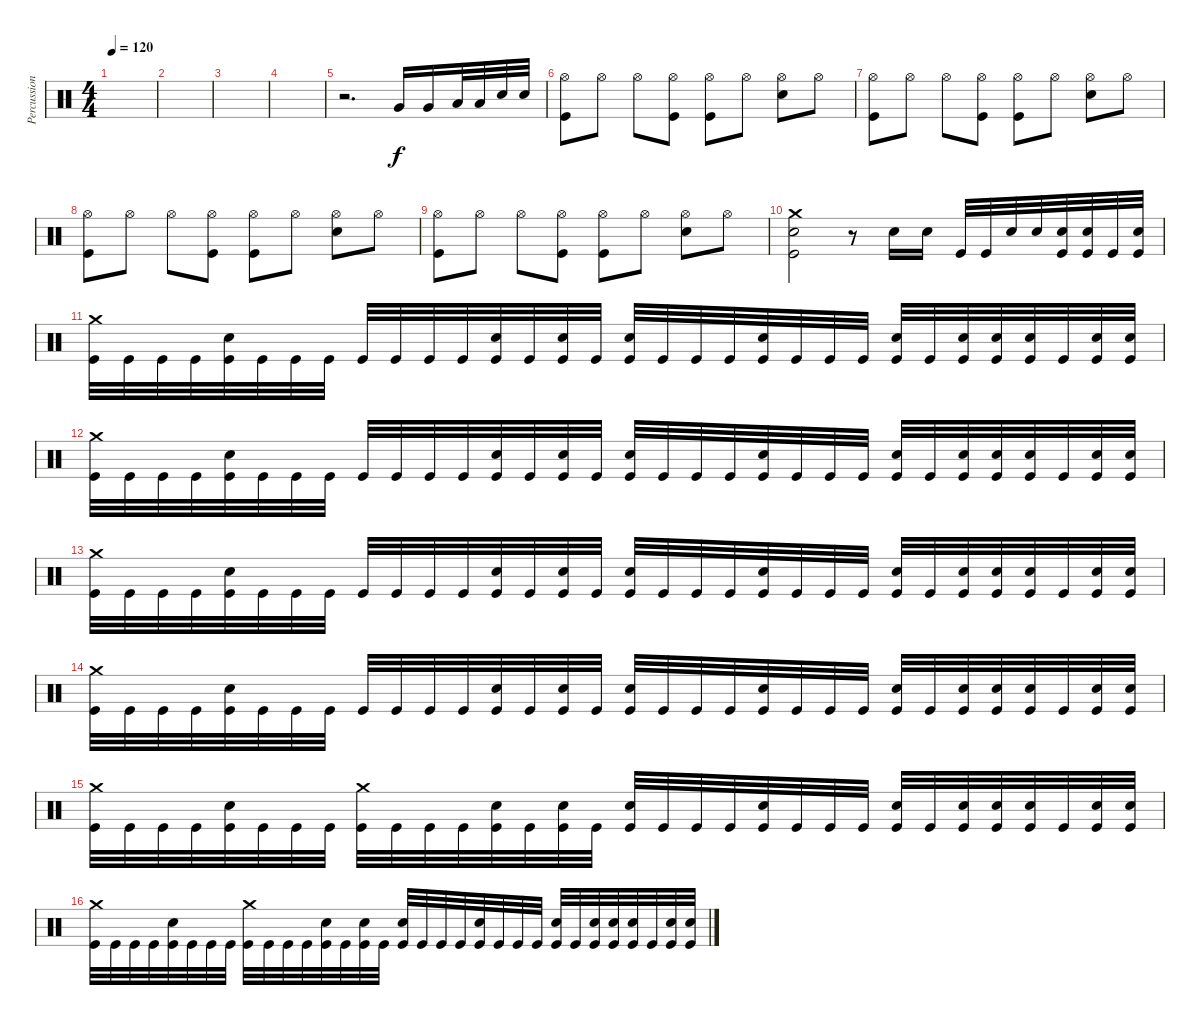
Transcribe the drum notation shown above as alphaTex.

\track ("Percussion" "Percussion") {instrument percussion}
\staff {score}
\articulation defaults
\ts (4 4)
\tempo 120
\clef neutral
\ks c
|
|
|
|
r.2{d} "Very Low Tom (hit)".16 "Very Low Tom (hit)".16 "Low Floor Tom (hit)".32 "Low Floor Tom (hit)".32 "Snare (hit) 2".32 "Snare (hit) 2".32 |
("Hi-Hat (open)" "Kick (hit)").8 "Hi-Hat (open)".8 "Hi-Hat (open)".8 ("Hi-Hat (open)" "Kick (hit)").8 ("Hi-Hat (open)" "Kick (hit)").8 "Hi-Hat (open)".8 ("Hi-Hat (open)" "Electric Snare (hit)").8 "Hi-Hat (open)".8 |
("Hi-Hat (open)" "Kick (hit)").8 "Hi-Hat (open)".8 "Hi-Hat (open)".8 ("Hi-Hat (open)" "Kick (hit)").8 ("Hi-Hat (open)" "Kick (hit)").8 "Hi-Hat (open)".8 ("Hi-Hat (open)" "Electric Snare (hit)").8 "Hi-Hat (open)".8 |
("Hi-Hat (open)" "Kick (hit)").8 "Hi-Hat (open)".8 "Hi-Hat (open)".8 ("Hi-Hat (open)" "Kick (hit)").8 ("Hi-Hat (open)" "Kick (hit)").8 "Hi-Hat (open)".8 ("Hi-Hat (open)" "Electric Snare (hit)").8 "Hi-Hat (open)".8 |
("Hi-Hat (open)" "Kick (hit)").8 "Hi-Hat (open)".8 "Hi-Hat (open)".8 ("Hi-Hat (open)" "Kick (hit)").8 ("Hi-Hat (open)" "Kick (hit)").8 "Hi-Hat (open)".8 ("Hi-Hat (open)" "Electric Snare (hit)").8 "Hi-Hat (open)".8 |
("Crash medium (hit)" "Snare (hit) 2" "Kick (hit)").2 r.8 "Electric Snare (hit)".16 "Electric Snare (hit)".16 "Kick (hit)".32 "Kick (hit)".32 "Electric Snare (hit)".32 "Electric Snare (hit)".32 ("Electric Snare (hit)" "Kick (hit)").32 ("Electric Snare (hit)" "Kick (hit)").32 "Kick (hit)".32 ("Electric Snare (hit)" "Kick (hit)").32 |
("Crash medium (hit)" "Kick (hit)").32 "Kick (hit)".32 "Kick (hit)".32 "Kick (hit)".32 ("Electric Snare (hit)" "Kick (hit)").32 "Kick (hit)".32 "Kick (hit)".32 "Kick (hit)".32 "Kick (hit)".32 "Kick (hit)".32 "Kick (hit)".32 "Kick (hit)".32 ("Electric Snare (hit)" "Kick (hit)").32 "Kick (hit)".32 ("Electric Snare (hit)" "Kick (hit)").32 "Kick (hit)".32 ("Electric Snare (hit)" "Kick (hit)").32 "Kick (hit)".32 "Kick (hit)".32 "Kick (hit)".32 ("Electric Snare (hit)" "Kick (hit)").32 "Kick (hit)".32 "Kick (hit)".32 "Kick (hit)".32 ("Electric Snare (hit)" "Kick (hit)").32 "Kick (hit)".32 ("Electric Snare (hit)" "Kick (hit)").32 ("Electric Snare (hit)" "Kick (hit)").32 ("Electric Snare (hit)" "Kick (hit)").32 "Kick (hit)".32 ("Electric Snare (hit)" "Kick (hit)").32 ("Electric Snare (hit)" "Kick (hit)").32 |
("Crash medium (hit)" "Kick (hit)").32 "Kick (hit)".32 "Kick (hit)".32 "Kick (hit)".32 ("Electric Snare (hit)" "Kick (hit)").32 "Kick (hit)".32 "Kick (hit)".32 "Kick (hit)".32 "Kick (hit)".32 "Kick (hit)".32 "Kick (hit)".32 "Kick (hit)".32 ("Electric Snare (hit)" "Kick (hit)").32 "Kick (hit)".32 ("Electric Snare (hit)" "Kick (hit)").32 "Kick (hit)".32 ("Electric Snare (hit)" "Kick (hit)").32 "Kick (hit)".32 "Kick (hit)".32 "Kick (hit)".32 ("Electric Snare (hit)" "Kick (hit)").32 "Kick (hit)".32 "Kick (hit)".32 "Kick (hit)".32 ("Electric Snare (hit)" "Kick (hit)").32 "Kick (hit)".32 ("Electric Snare (hit)" "Kick (hit)").32 ("Electric Snare (hit)" "Kick (hit)").32 ("Electric Snare (hit)" "Kick (hit)").32 "Kick (hit)".32 ("Electric Snare (hit)" "Kick (hit)").32 ("Electric Snare (hit)" "Kick (hit)").32 |
("Crash medium (hit)" "Kick (hit)").32 "Kick (hit)".32 "Kick (hit)".32 "Kick (hit)".32 ("Electric Snare (hit)" "Kick (hit)").32 "Kick (hit)".32 "Kick (hit)".32 "Kick (hit)".32 "Kick (hit)".32 "Kick (hit)".32 "Kick (hit)".32 "Kick (hit)".32 ("Electric Snare (hit)" "Kick (hit)").32 "Kick (hit)".32 ("Electric Snare (hit)" "Kick (hit)").32 "Kick (hit)".32 ("Electric Snare (hit)" "Kick (hit)").32 "Kick (hit)".32 "Kick (hit)".32 "Kick (hit)".32 ("Electric Snare (hit)" "Kick (hit)").32 "Kick (hit)".32 "Kick (hit)".32 "Kick (hit)".32 ("Electric Snare (hit)" "Kick (hit)").32 "Kick (hit)".32 ("Electric Snare (hit)" "Kick (hit)").32 ("Electric Snare (hit)" "Kick (hit)").32 ("Electric Snare (hit)" "Kick (hit)").32 "Kick (hit)".32 ("Electric Snare (hit)" "Kick (hit)").32 ("Electric Snare (hit)" "Kick (hit)").32 |
("Crash medium (hit)" "Kick (hit)").32 "Kick (hit)".32 "Kick (hit)".32 "Kick (hit)".32 ("Electric Snare (hit)" "Kick (hit)").32 "Kick (hit)".32 "Kick (hit)".32 "Kick (hit)".32 "Kick (hit)".32 "Kick (hit)".32 "Kick (hit)".32 "Kick (hit)".32 ("Electric Snare (hit)" "Kick (hit)").32 "Kick (hit)".32 ("Electric Snare (hit)" "Kick (hit)").32 "Kick (hit)".32 ("Electric Snare (hit)" "Kick (hit)").32 "Kick (hit)".32 "Kick (hit)".32 "Kick (hit)".32 ("Electric Snare (hit)" "Kick (hit)").32 "Kick (hit)".32 "Kick (hit)".32 "Kick (hit)".32 ("Electric Snare (hit)" "Kick (hit)").32 "Kick (hit)".32 ("Electric Snare (hit)" "Kick (hit)").32 ("Electric Snare (hit)" "Kick (hit)").32 ("Electric Snare (hit)" "Kick (hit)").32 "Kick (hit)".32 ("Electric Snare (hit)" "Kick (hit)").32 ("Electric Snare (hit)" "Kick (hit)").32 |
("Crash medium (hit)" "Kick (hit)").32 "Kick (hit)".32 "Kick (hit)".32 "Kick (hit)".32 ("Electric Snare (hit)" "Kick (hit)").32 "Kick (hit)".32 "Kick (hit)".32 "Kick (hit)".32 ("Crash medium (hit)" "Kick (hit)").32 "Kick (hit)".32 "Kick (hit)".32 "Kick (hit)".32 ("Electric Snare (hit)" "Kick (hit)").32 "Kick (hit)".32 ("Electric Snare (hit)" "Kick (hit)").32 "Kick (hit)".32 ("Electric Snare (hit)" "Kick (hit)").32 "Kick (hit)".32 "Kick (hit)".32 "Kick (hit)".32 ("Electric Snare (hit)" "Kick (hit)").32 "Kick (hit)".32 "Kick (hit)".32 "Kick (hit)".32 ("Electric Snare (hit)" "Kick (hit)").32 "Kick (hit)".32 ("Electric Snare (hit)" "Kick (hit)").32 ("Electric Snare (hit)" "Kick (hit)").32 ("Electric Snare (hit)" "Kick (hit)").32 "Kick (hit)".32 ("Electric Snare (hit)" "Kick (hit)").32 ("Electric Snare (hit)" "Kick (hit)").32 |
("Crash medium (hit)" "Kick (hit)").32 "Kick (hit)".32 "Kick (hit)".32 "Kick (hit)".32 ("Electric Snare (hit)" "Kick (hit)").32 "Kick (hit)".32 "Kick (hit)".32 "Kick (hit)".32 ("Crash medium (hit)" "Kick (hit)").32 "Kick (hit)".32 "Kick (hit)".32 "Kick (hit)".32 ("Electric Snare (hit)" "Kick (hit)").32 "Kick (hit)".32 ("Electric Snare (hit)" "Kick (hit)").32 "Kick (hit)".32 ("Electric Snare (hit)" "Kick (hit)").32 "Kick (hit)".32 "Kick (hit)".32 "Kick (hit)".32 ("Electric Snare (hit)" "Kick (hit)").32 "Kick (hit)".32 "Kick (hit)".32 "Kick (hit)".32 ("Electric Snare (hit)" "Kick (hit)").32 "Kick (hit)".32 ("Electric Snare (hit)" "Kick (hit)").32 ("Electric Snare (hit)" "Kick (hit)").32 ("Electric Snare (hit)" "Kick (hit)").32 "Kick (hit)".32 ("Electric Snare (hit)" "Kick (hit)").32 ("Electric Snare (hit)" "Kick (hit)").32
